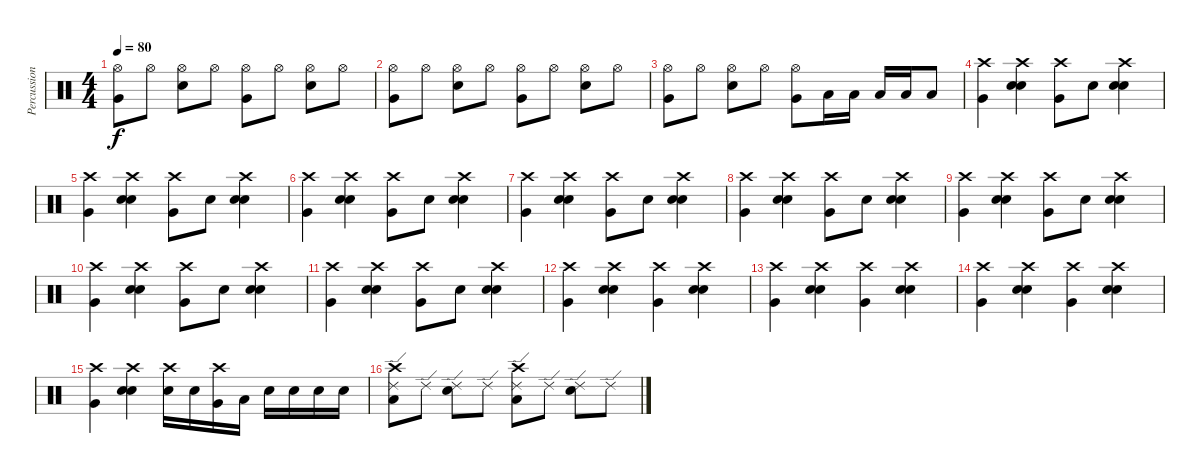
\track ("Percussion" "Percussion") {instrument percussion}
\staff {score}
\articulation defaults
\ts (4 4)
\tempo 80
\clef neutral
\ks c
("Hi-Hat (open)" "Very Low Tom (hit)").8{dy f} "Hi-Hat (open)".8 ("Hi-Hat (open)" "Snare (hit) 2").8 "Hi-Hat (open)".8 ("Hi-Hat (open)" "Very Low Tom (hit)").8 "Hi-Hat (open)".8 ("Hi-Hat (open)" "Snare (hit) 2").8 "Hi-Hat (open)".8 |
("Hi-Hat (open)" "Very Low Tom (hit)").8 "Hi-Hat (open)".8 ("Hi-Hat (open)" "Snare (hit) 2").8 "Hi-Hat (open)".8 ("Hi-Hat (open)" "Very Low Tom (hit)").8 "Hi-Hat (open)".8 ("Hi-Hat (open)" "Snare (hit) 2").8 "Hi-Hat (open)".8 |
("Hi-Hat (open)" "Very Low Tom (hit)").8 "Hi-Hat (open)".8 ("Hi-Hat (open)" "Snare (hit) 2").8 "Hi-Hat (open)".8 ("Hi-Hat (open)" "Very Low Tom (hit)").8 "Low Tom (hit)".16 "Low Tom (hit)".16 "Low Tom (hit)".16 "Low Tom (hit)".16 "Low Tom (hit)".8 |
("Crash high (hit)" "Very Low Tom (hit)").4 ("Crash high (hit)" "Snare (hit) 2" "Snare (hit) 2").4 ("Crash high (hit)" "Very Low Tom (hit)").8 "Snare (hit) 2".8 ("Crash high (hit)" "Snare (hit) 2" "Snare (hit) 2").4 |
("Crash high (hit)" "Very Low Tom (hit)").4 ("Crash high (hit)" "Snare (hit) 2" "Snare (hit) 2").4 ("Crash high (hit)" "Very Low Tom (hit)").8 "Snare (hit) 2".8 ("Crash high (hit)" "Snare (hit) 2" "Snare (hit) 2").4 |
("Crash high (hit)" "Very Low Tom (hit)").4 ("Crash high (hit)" "Snare (hit) 2" "Snare (hit) 2").4 ("Crash high (hit)" "Very Low Tom (hit)").8 "Snare (hit) 2".8 ("Crash high (hit)" "Snare (hit) 2" "Snare (hit) 2").4 |
("Crash high (hit)" "Very Low Tom (hit)").4 ("Crash high (hit)" "Snare (hit) 2" "Snare (hit) 2").4 ("Crash high (hit)" "Very Low Tom (hit)").8 "Snare (hit) 2".8 ("Crash high (hit)" "Snare (hit) 2" "Snare (hit) 2").4 |
("Crash high (hit)" "Very Low Tom (hit)").4 ("Crash high (hit)" "Snare (hit) 2" "Snare (hit) 2").4 ("Crash high (hit)" "Very Low Tom (hit)").8 "Snare (hit) 2".8 ("Crash high (hit)" "Snare (hit) 2" "Snare (hit) 2").4 |
("Crash high (hit)" "Very Low Tom (hit)").4 ("Crash high (hit)" "Snare (hit) 2" "Snare (hit) 2").4 ("Crash high (hit)" "Very Low Tom (hit)").8 "Snare (hit) 2".8 ("Crash high (hit)" "Snare (hit) 2" "Snare (hit) 2").4 |
("Crash high (hit)" "Very Low Tom (hit)").4 ("Crash high (hit)" "Snare (hit) 2" "Snare (hit) 2").4 ("Crash high (hit)" "Very Low Tom (hit)").8 "Snare (hit) 2".8 ("Crash high (hit)" "Snare (hit) 2" "Snare (hit) 2").4 |
("Crash high (hit)" "Very Low Tom (hit)").4 ("Crash high (hit)" "Snare (hit) 2" "Snare (hit) 2").4 ("Crash high (hit)" "Very Low Tom (hit)").8 "Snare (hit) 2".8 ("Crash high (hit)" "Snare (hit) 2" "Snare (hit) 2").4 |
("Crash high (hit)" "Very Low Tom (hit)").4 ("Crash high (hit)" "Snare (hit) 2" "Snare (hit) 2").4 ("Crash high (hit)" "Very Low Tom (hit)").4 ("Crash high (hit)" "Snare (hit) 2" "Snare (hit) 2").4 |
("Crash high (hit)" "Very Low Tom (hit)").4 ("Crash high (hit)" "Snare (hit) 2" "Snare (hit) 2").4 ("Crash high (hit)" "Very Low Tom (hit)").4 ("Crash high (hit)" "Snare (hit) 2" "Snare (hit) 2").4 |
("Crash high (hit)" "Very Low Tom (hit)").4 ("Crash high (hit)" "Snare (hit) 2" "Snare (hit) 2").4 ("Crash high (hit)" "Very Low Tom (hit)").4 ("Crash high (hit)" "Snare (hit) 2" "Snare (hit) 2").4 |
("Crash high (hit)" "Very Low Tom (hit)").4 ("Crash high (hit)" "Snare (hit) 2" "Snare (hit) 2").4 ("Crash high (hit)" "Snare (hit) 2").16 "Snare (hit) 2".16 ("Crash high (hit)" "Very Low Tom (hit)").16 "Low Floor Tom (hit)".16 "Snare (hit) 2".16 "Snare (hit) 2".16 "Snare (hit) 2".16 "Snare (hit) 2".16 |
("Crash high (hit)" "Ride (edge) 2" "Low Floor Tom (hit)").8 "Ride (edge) 2".8 ("Ride (edge) 2" "Snare (hit) 2").8 "Ride (edge) 2".8 ("Crash high (hit)" "Ride (edge) 2" "Low Floor Tom (hit)").8 "Ride (edge) 2".8 ("Ride (edge) 2" "Snare (hit) 2").8 "Ride (edge) 2".8
